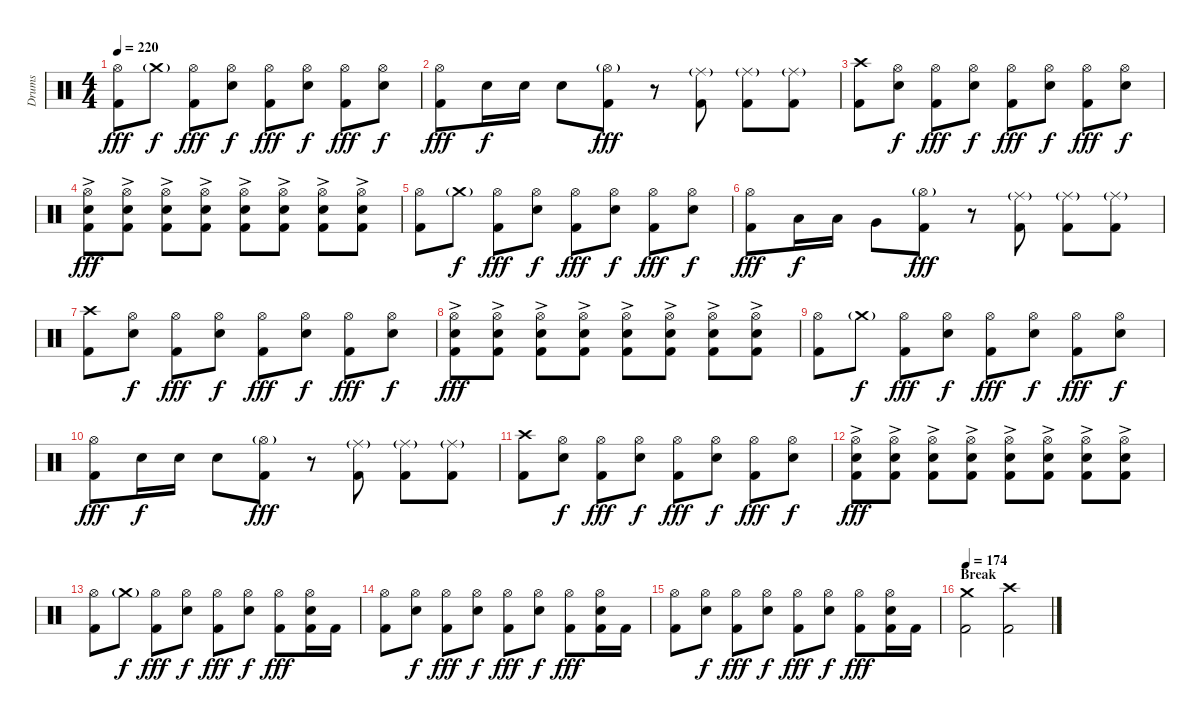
\track ("Drums" "Drums") {instrument percussion}
\staff {score}
\articulation defaults
\ts (4 4)
\tempo 220
\clef neutral
\ks c
("Hi-Hat (open)" "Kick (hit) 2").8{dy fff} "Crash medium (hit)"{g}.8{dy f} ("Hi-Hat (open)" "Kick (hit) 2").8{dy fff} ("Hi-Hat (open)" "Electric Snare (hit)").8{dy f} ("Hi-Hat (open)" "Kick (hit) 2").8{dy fff} ("Hi-Hat (open)" "Electric Snare (hit)").8{dy f} ("Hi-Hat (open)" "Kick (hit) 2").8{dy fff} ("Hi-Hat (open)" "Electric Snare (hit)").8{dy f} |
("Hi-Hat (open)" "Kick (hit) 2").8{dy fff} "Electric Snare (hit)".16{dy f} "Electric Snare (hit)".16 "Electric Snare (hit)".8 ("Hi-Hat (open)"{g} "Kick (hit) 2").8{dy fff} r.8 ("Ride (middle)"{g} "Kick (hit) 2").8 ("Ride (middle)"{g} "Kick (hit) 2").8 ("Ride (middle)"{g} "Kick (hit) 2").8 |
("Crash high (hit)" "Kick (hit) 2").8 ("Hi-Hat (open)" "Electric Snare (hit)").8{dy f} ("Hi-Hat (open)" "Kick (hit) 2").8{dy fff} ("Hi-Hat (open)" "Electric Snare (hit)").8{dy f} ("Hi-Hat (open)" "Kick (hit) 2").8{dy fff} ("Hi-Hat (open)" "Electric Snare (hit)").8{dy f} ("Hi-Hat (open)" "Kick (hit) 2").8{dy fff} ("Hi-Hat (open)" "Electric Snare (hit)").8{dy f} |
("Hi-Hat (open)"{ac} "Electric Snare (hit)"{ac} "Kick (hit) 2").8{dy fff} ("Hi-Hat (open)"{ac} "Electric Snare (hit)"{ac} "Kick (hit) 2").8 ("Hi-Hat (open)"{ac} "Electric Snare (hit)"{ac} "Kick (hit) 2").8 ("Hi-Hat (open)"{ac} "Electric Snare (hit)"{ac} "Kick (hit) 2").8 ("Hi-Hat (open)"{ac} "Electric Snare (hit)"{ac} "Kick (hit) 2").8 ("Hi-Hat (open)"{ac} "Electric Snare (hit)"{ac} "Kick (hit) 2").8 ("Hi-Hat (open)"{ac} "Electric Snare (hit)"{ac} "Kick (hit) 2").8 ("Hi-Hat (open)"{ac} "Electric Snare (hit)"{ac} "Kick (hit) 2").8 |
("Hi-Hat (open)" "Kick (hit) 2").8 "Crash medium (hit)"{g}.8{dy f} ("Hi-Hat (open)" "Kick (hit) 2").8{dy fff} ("Hi-Hat (open)" "Electric Snare (hit)").8{dy f} ("Hi-Hat (open)" "Kick (hit) 2").8{dy fff} ("Hi-Hat (open)" "Electric Snare (hit)").8{dy f} ("Hi-Hat (open)" "Kick (hit) 2").8{dy fff} ("Hi-Hat (open)" "Electric Snare (hit)").8{dy f} |
("Hi-Hat (open)" "Kick (hit) 2").8{dy fff} "Low Tom (hit)".16{dy f} "Low Tom (hit)".16 "Very Low Tom (hit)".8 ("Hi-Hat (open)"{g} "Kick (hit) 2").8{dy fff} r.8 ("Ride (middle)"{g} "Kick (hit) 2").8 ("Ride (middle)"{g} "Kick (hit) 2").8 ("Ride (middle)"{g} "Kick (hit) 2").8 |
("Crash high (hit)" "Kick (hit) 2").8 ("Hi-Hat (open)" "Electric Snare (hit)").8{dy f} ("Hi-Hat (open)" "Kick (hit) 2").8{dy fff} ("Hi-Hat (open)" "Electric Snare (hit)").8{dy f} ("Hi-Hat (open)" "Kick (hit) 2").8{dy fff} ("Hi-Hat (open)" "Electric Snare (hit)").8{dy f} ("Hi-Hat (open)" "Kick (hit) 2").8{dy fff} ("Hi-Hat (open)" "Electric Snare (hit)").8{dy f} |
("Hi-Hat (open)"{ac} "Electric Snare (hit)"{ac} "Kick (hit) 2").8{dy fff} ("Hi-Hat (open)"{ac} "Electric Snare (hit)"{ac} "Kick (hit) 2").8 ("Hi-Hat (open)"{ac} "Electric Snare (hit)"{ac} "Kick (hit) 2").8 ("Hi-Hat (open)"{ac} "Electric Snare (hit)"{ac} "Kick (hit) 2").8 ("Hi-Hat (open)"{ac} "Electric Snare (hit)"{ac} "Kick (hit) 2").8 ("Hi-Hat (open)"{ac} "Electric Snare (hit)"{ac} "Kick (hit) 2").8 ("Hi-Hat (open)"{ac} "Electric Snare (hit)"{ac} "Kick (hit) 2").8 ("Hi-Hat (open)"{ac} "Electric Snare (hit)"{ac} "Kick (hit) 2").8 |
("Hi-Hat (open)" "Kick (hit) 2").8 "Crash medium (hit)"{g}.8{dy f} ("Hi-Hat (open)" "Kick (hit) 2").8{dy fff} ("Hi-Hat (open)" "Electric Snare (hit)").8{dy f} ("Hi-Hat (open)" "Kick (hit) 2").8{dy fff} ("Hi-Hat (open)" "Electric Snare (hit)").8{dy f} ("Hi-Hat (open)" "Kick (hit) 2").8{dy fff} ("Hi-Hat (open)" "Electric Snare (hit)").8{dy f} |
("Hi-Hat (open)" "Kick (hit) 2").8{dy fff} "Electric Snare (hit)".16{dy f} "Electric Snare (hit)".16 "Electric Snare (hit)".8 ("Hi-Hat (open)"{g} "Kick (hit) 2").8{dy fff} r.8 ("Ride (middle)"{g} "Kick (hit) 2").8 ("Ride (middle)"{g} "Kick (hit) 2").8 ("Ride (middle)"{g} "Kick (hit) 2").8 |
("Crash high (hit)" "Kick (hit) 2").8 ("Hi-Hat (open)" "Electric Snare (hit)").8{dy f} ("Hi-Hat (open)" "Kick (hit) 2").8{dy fff} ("Hi-Hat (open)" "Electric Snare (hit)").8{dy f} ("Hi-Hat (open)" "Kick (hit) 2").8{dy fff} ("Hi-Hat (open)" "Electric Snare (hit)").8{dy f} ("Hi-Hat (open)" "Kick (hit) 2").8{dy fff} ("Hi-Hat (open)" "Electric Snare (hit)").8{dy f} |
("Hi-Hat (open)"{ac} "Electric Snare (hit)"{ac} "Kick (hit) 2").8{dy fff} ("Hi-Hat (open)"{ac} "Electric Snare (hit)"{ac} "Kick (hit) 2").8 ("Hi-Hat (open)"{ac} "Electric Snare (hit)"{ac} "Kick (hit) 2").8 ("Hi-Hat (open)"{ac} "Electric Snare (hit)"{ac} "Kick (hit) 2").8 ("Hi-Hat (open)"{ac} "Electric Snare (hit)"{ac} "Kick (hit) 2").8 ("Hi-Hat (open)"{ac} "Electric Snare (hit)"{ac} "Kick (hit) 2").8 ("Hi-Hat (open)"{ac} "Electric Snare (hit)"{ac} "Kick (hit) 2").8 ("Hi-Hat (open)"{ac} "Electric Snare (hit)"{ac} "Kick (hit) 2").8 |
("Hi-Hat (open)" "Kick (hit) 2").8 "Crash medium (hit)"{g}.8{dy f} ("Hi-Hat (open)" "Kick (hit) 2").8{dy fff} ("Hi-Hat (open)" "Electric Snare (hit)").8{dy f} ("Hi-Hat (open)" "Kick (hit) 2").8{dy fff} ("Hi-Hat (open)" "Electric Snare (hit)").8{dy f} ("Hi-Hat (open)" "Kick (hit) 2").8{dy fff} ("Hi-Hat (open)" "Electric Snare (hit)" "Kick (hit) 2").16 "Kick (hit) 2".16 |
("Hi-Hat (open)" "Kick (hit) 2").8 ("Hi-Hat (open)" "Electric Snare (hit)").8{dy f} ("Hi-Hat (open)" "Kick (hit) 2").8{dy fff} ("Hi-Hat (open)" "Electric Snare (hit)").8{dy f} ("Hi-Hat (open)" "Kick (hit) 2").8{dy fff} ("Hi-Hat (open)" "Electric Snare (hit)").8{dy f} ("Hi-Hat (open)" "Kick (hit) 2").8{dy fff} ("Hi-Hat (open)" "Electric Snare (hit)" "Kick (hit) 2").16 "Kick (hit) 2".16 |
("Hi-Hat (open)" "Kick (hit) 2").8 ("Hi-Hat (open)" "Electric Snare (hit)").8{dy f} ("Hi-Hat (open)" "Kick (hit) 2").8{dy fff} ("Hi-Hat (open)" "Electric Snare (hit)").8{dy f} ("Hi-Hat (open)" "Kick (hit) 2").8{dy fff} ("Hi-Hat (open)" "Electric Snare (hit)").8{dy f} ("Hi-Hat (open)" "Kick (hit) 2").8{dy fff} ("Hi-Hat (open)" "Electric Snare (hit)" "Kick (hit) 2").16 "Kick (hit) 2".16 |
\section ("" "Break")
\tempo 174
("Crash medium (hit)" "Kick (hit) 2").2 ("Crash high (hit)" "Kick (hit) 2").2
